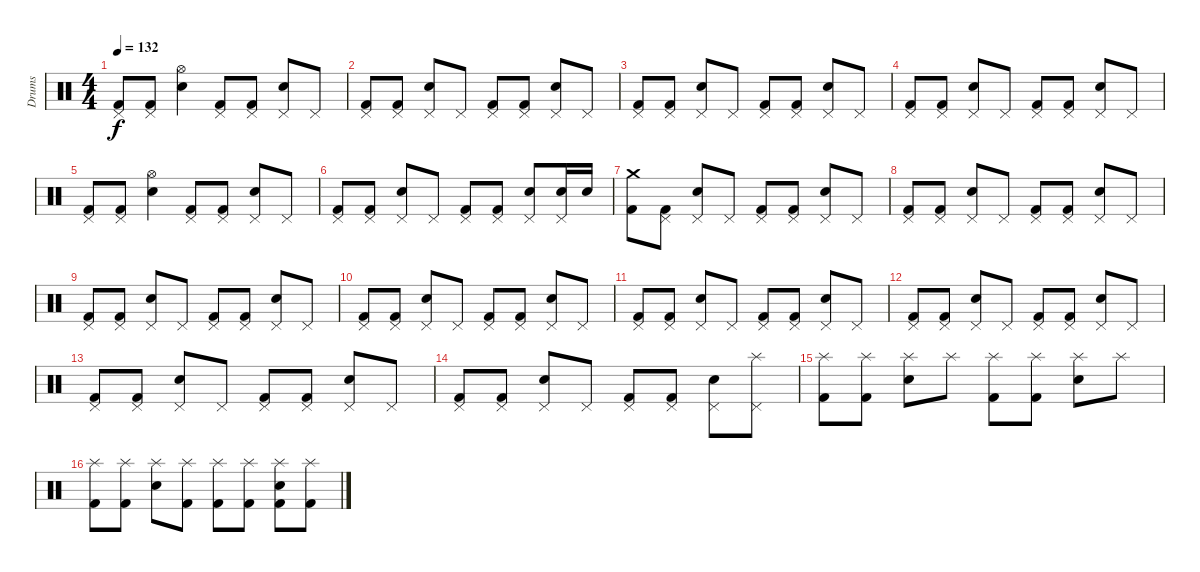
\track ("Drums" "Drums") {instrument percussion}
\staff {score}
\articulation defaults
\ts (4 4)
\tempo 132
\clef neutral
\ks c
("Kick (hit) 2" "Pedal Hi-Hat (hit)").8{dy f} ("Kick (hit) 2" "Pedal Hi-Hat (hit)").8 ("Hi-Hat (open)" "Snare (hit) 2").4 ("Kick (hit) 2" "Pedal Hi-Hat (hit)").8 ("Kick (hit) 2" "Pedal Hi-Hat (hit)").8 ("Pedal Hi-Hat (hit)" "Snare (hit) 2").8 "Pedal Hi-Hat (hit)".8 |
("Kick (hit) 2" "Pedal Hi-Hat (hit)").8 ("Kick (hit) 2" "Pedal Hi-Hat (hit)").8 ("Pedal Hi-Hat (hit)" "Snare (hit) 2").8 "Pedal Hi-Hat (hit)".8 ("Kick (hit) 2" "Pedal Hi-Hat (hit)").8 ("Kick (hit) 2" "Pedal Hi-Hat (hit)").8 ("Pedal Hi-Hat (hit)" "Snare (hit) 2").8 "Pedal Hi-Hat (hit)".8 |
("Pedal Hi-Hat (hit)" "Kick (hit) 2").8 ("Pedal Hi-Hat (hit)" "Kick (hit) 2").8 ("Pedal Hi-Hat (hit)" "Snare (hit) 2").8 "Pedal Hi-Hat (hit)".8 ("Pedal Hi-Hat (hit)" "Kick (hit) 2").8 ("Pedal Hi-Hat (hit)" "Kick (hit) 2").8 ("Pedal Hi-Hat (hit)" "Snare (hit) 2").8 "Pedal Hi-Hat (hit)".8 |
("Pedal Hi-Hat (hit)" "Kick (hit) 2").8 ("Pedal Hi-Hat (hit)" "Kick (hit) 2").8 ("Pedal Hi-Hat (hit)" "Snare (hit) 2").8 "Pedal Hi-Hat (hit)".8 ("Pedal Hi-Hat (hit)" "Kick (hit) 2").8 ("Pedal Hi-Hat (hit)" "Kick (hit) 2").8 ("Pedal Hi-Hat (hit)" "Snare (hit) 2").8 "Pedal Hi-Hat (hit)".8 |
("Pedal Hi-Hat (hit)" "Kick (hit) 2").8 ("Pedal Hi-Hat (hit)" "Kick (hit) 2").8 ("Snare (hit) 2" "Hi-Hat (open)").4 ("Pedal Hi-Hat (hit)" "Kick (hit) 2").8 ("Pedal Hi-Hat (hit)" "Kick (hit) 2").8 ("Pedal Hi-Hat (hit)" "Snare (hit) 2").8 "Pedal Hi-Hat (hit)".8 |
("Pedal Hi-Hat (hit)" "Kick (hit) 2").8 ("Pedal Hi-Hat (hit)" "Kick (hit) 2").8 ("Pedal Hi-Hat (hit)" "Snare (hit) 2").8 "Pedal Hi-Hat (hit)".8 ("Pedal Hi-Hat (hit)" "Kick (hit) 2").8 ("Pedal Hi-Hat (hit)" "Kick (hit) 2").8 ("Pedal Hi-Hat (hit)" "Snare (hit) 2").8 ("Pedal Hi-Hat (hit)" "Snare (hit) 2").16 "Snare (hit) 2".16 |
("Kick (hit) 2" "Crash medium (hit)").8 ("Pedal Hi-Hat (hit)" "Kick (hit) 2").8 ("Pedal Hi-Hat (hit)" "Snare (hit) 2").8 "Pedal Hi-Hat (hit)".8 ("Pedal Hi-Hat (hit)" "Kick (hit) 2").8 ("Pedal Hi-Hat (hit)" "Kick (hit) 2").8 ("Pedal Hi-Hat (hit)" "Snare (hit) 2").8 "Pedal Hi-Hat (hit)".8 |
("Pedal Hi-Hat (hit)" "Kick (hit) 2").8 ("Pedal Hi-Hat (hit)" "Kick (hit) 2").8 ("Pedal Hi-Hat (hit)" "Snare (hit) 2").8 "Pedal Hi-Hat (hit)".8 ("Pedal Hi-Hat (hit)" "Kick (hit) 2").8 ("Pedal Hi-Hat (hit)" "Kick (hit) 2").8 ("Pedal Hi-Hat (hit)" "Snare (hit) 2").8 "Pedal Hi-Hat (hit)".8 |
("Pedal Hi-Hat (hit)" "Kick (hit) 2").8 ("Pedal Hi-Hat (hit)" "Kick (hit) 2").8 ("Pedal Hi-Hat (hit)" "Snare (hit) 2").8 "Pedal Hi-Hat (hit)".8 ("Pedal Hi-Hat (hit)" "Kick (hit) 2").8 ("Pedal Hi-Hat (hit)" "Kick (hit) 2").8 ("Pedal Hi-Hat (hit)" "Snare (hit) 2").8 "Pedal Hi-Hat (hit)".8 |
("Pedal Hi-Hat (hit)" "Kick (hit) 2").8 ("Pedal Hi-Hat (hit)" "Kick (hit) 2").8 ("Pedal Hi-Hat (hit)" "Snare (hit) 2").8 "Pedal Hi-Hat (hit)".8 ("Pedal Hi-Hat (hit)" "Kick (hit) 2").8 ("Pedal Hi-Hat (hit)" "Kick (hit) 2").8 ("Pedal Hi-Hat (hit)" "Snare (hit) 2").8 "Pedal Hi-Hat (hit)".8 |
("Pedal Hi-Hat (hit)" "Kick (hit) 2").8 ("Pedal Hi-Hat (hit)" "Kick (hit) 2").8 ("Pedal Hi-Hat (hit)" "Snare (hit) 2").8 "Pedal Hi-Hat (hit)".8 ("Pedal Hi-Hat (hit)" "Kick (hit) 2").8 ("Pedal Hi-Hat (hit)" "Kick (hit) 2").8 ("Pedal Hi-Hat (hit)" "Snare (hit) 2").8 "Pedal Hi-Hat (hit)".8 |
("Pedal Hi-Hat (hit)" "Kick (hit) 2").8 ("Pedal Hi-Hat (hit)" "Kick (hit) 2").8 ("Pedal Hi-Hat (hit)" "Snare (hit) 2").8 "Pedal Hi-Hat (hit)".8 ("Pedal Hi-Hat (hit)" "Kick (hit) 2").8 ("Pedal Hi-Hat (hit)" "Kick (hit) 2").8 ("Pedal Hi-Hat (hit)" "Snare (hit) 2").8 "Pedal Hi-Hat (hit)".8 |
("Pedal Hi-Hat (hit)" "Kick (hit) 2").8 ("Pedal Hi-Hat (hit)" "Kick (hit) 2").8 ("Pedal Hi-Hat (hit)" "Snare (hit) 2").8 "Pedal Hi-Hat (hit)".8 ("Pedal Hi-Hat (hit)" "Kick (hit) 2").8 ("Pedal Hi-Hat (hit)" "Kick (hit) 2").8 ("Snare (hit) 2" "Pedal Hi-Hat (hit)").8 "Pedal Hi-Hat (hit)".8 |
("Pedal Hi-Hat (hit)" "Kick (hit) 2").8 ("Pedal Hi-Hat (hit)" "Kick (hit) 2").8 ("Pedal Hi-Hat (hit)" "Snare (hit) 2").8 "Pedal Hi-Hat (hit)".8 ("Pedal Hi-Hat (hit)" "Kick (hit) 2").8 ("Pedal Hi-Hat (hit)" "Kick (hit) 2").8 ("Pedal Hi-Hat (hit)" "Snare (hit) 2").8 ("Splash (hit)" "Pedal Hi-Hat (hit)").8 |
("Splash (hit)" "Kick (hit) 2").8 ("Splash (hit)" "Kick (hit) 2").8 ("Splash (hit)" "Snare (hit) 2").8 "Splash (hit)".8 ("Splash (hit)" "Kick (hit) 2").8 ("Splash (hit)" "Kick (hit) 2").8 ("Splash (hit)" "Snare (hit) 2").8 "Splash (hit)".8 |
("Splash (hit)" "Kick (hit) 2").8 ("Splash (hit)" "Kick (hit) 2").8 ("Splash (hit)" "Snare (hit) 2").8 ("Splash (hit)" "Kick (hit) 2").8 ("Splash (hit)" "Kick (hit) 2").8 ("Splash (hit)" "Kick (hit) 2").8 ("Splash (hit)" "Kick (hit) 2" "Snare (hit) 2").8 ("Splash (hit)" "Kick (hit) 2").8
